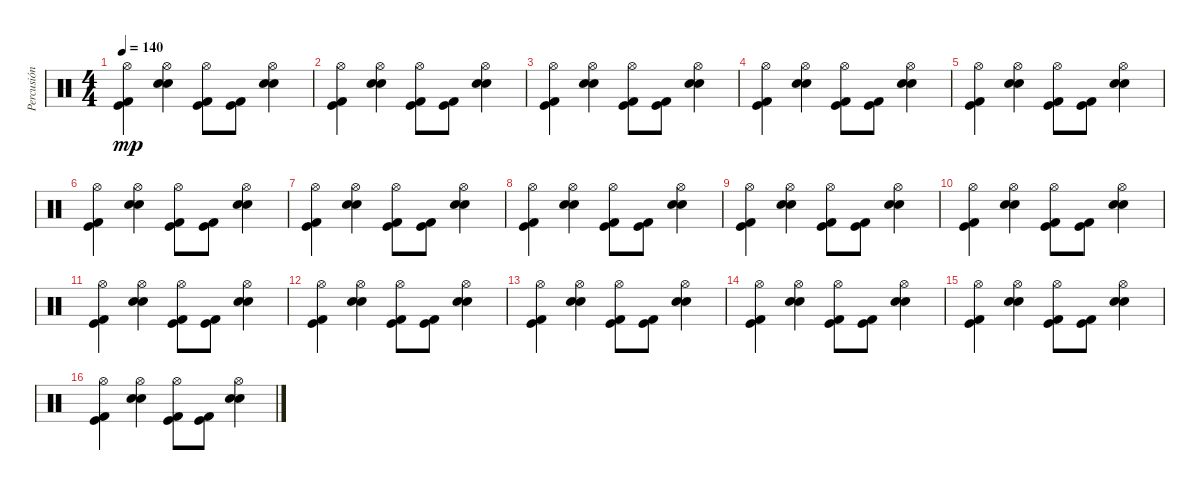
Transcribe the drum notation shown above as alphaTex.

\track ("Percusión" "Percusión") {instrument percussion}
\staff {score}
\articulation defaults
\ts (4 4)
\tempo 140
\clef neutral
\ks c
("Kick (hit)" "Kick (hit) 2" "Hi-Hat (open)").4{dy mp} ("Electric Snare (hit)" "Snare (hit) 2" "Hi-Hat (open)").4 ("Kick (hit)" "Kick (hit) 2" "Hi-Hat (open)").8 ("Kick (hit)" "Kick (hit) 2").8 ("Snare (hit) 2" "Electric Snare (hit)" "Hi-Hat (open)").4 |
("Kick (hit)" "Kick (hit) 2" "Hi-Hat (open)").4 ("Electric Snare (hit)" "Snare (hit) 2" "Hi-Hat (open)").4 ("Kick (hit)" "Kick (hit) 2" "Hi-Hat (open)").8 ("Kick (hit)" "Kick (hit) 2").8 ("Snare (hit) 2" "Electric Snare (hit)" "Hi-Hat (open)").4 |
("Kick (hit)" "Kick (hit) 2" "Hi-Hat (open)").4 ("Electric Snare (hit)" "Snare (hit) 2" "Hi-Hat (open)").4 ("Kick (hit)" "Kick (hit) 2" "Hi-Hat (open)").8 ("Kick (hit)" "Kick (hit) 2").8 ("Snare (hit) 2" "Electric Snare (hit)" "Hi-Hat (open)").4 |
("Kick (hit)" "Kick (hit) 2" "Hi-Hat (open)").4 ("Electric Snare (hit)" "Snare (hit) 2" "Hi-Hat (open)").4 ("Kick (hit)" "Kick (hit) 2" "Hi-Hat (open)").8 ("Kick (hit)" "Kick (hit) 2").8 ("Snare (hit) 2" "Electric Snare (hit)" "Hi-Hat (open)").4 |
("Kick (hit)" "Kick (hit) 2" "Hi-Hat (open)").4 ("Electric Snare (hit)" "Snare (hit) 2" "Hi-Hat (open)").4 ("Kick (hit)" "Kick (hit) 2" "Hi-Hat (open)").8 ("Kick (hit)" "Kick (hit) 2").8 ("Snare (hit) 2" "Electric Snare (hit)" "Hi-Hat (open)").4 |
("Kick (hit)" "Kick (hit) 2" "Hi-Hat (open)").4 ("Electric Snare (hit)" "Snare (hit) 2" "Hi-Hat (open)").4 ("Kick (hit)" "Kick (hit) 2" "Hi-Hat (open)").8 ("Kick (hit)" "Kick (hit) 2").8 ("Snare (hit) 2" "Electric Snare (hit)" "Hi-Hat (open)").4 |
("Kick (hit)" "Kick (hit) 2" "Hi-Hat (open)").4 ("Electric Snare (hit)" "Snare (hit) 2" "Hi-Hat (open)").4 ("Kick (hit)" "Kick (hit) 2" "Hi-Hat (open)").8 ("Kick (hit)" "Kick (hit) 2").8 ("Snare (hit) 2" "Electric Snare (hit)" "Hi-Hat (open)").4 |
("Kick (hit)" "Kick (hit) 2" "Hi-Hat (open)").4 ("Electric Snare (hit)" "Snare (hit) 2" "Hi-Hat (open)").4 ("Kick (hit)" "Kick (hit) 2" "Hi-Hat (open)").8 ("Kick (hit)" "Kick (hit) 2").8 ("Snare (hit) 2" "Electric Snare (hit)" "Hi-Hat (open)").4 |
("Kick (hit)" "Kick (hit) 2" "Hi-Hat (open)").4 ("Electric Snare (hit)" "Snare (hit) 2" "Hi-Hat (open)").4 ("Kick (hit)" "Kick (hit) 2" "Hi-Hat (open)").8 ("Kick (hit)" "Kick (hit) 2").8 ("Snare (hit) 2" "Electric Snare (hit)" "Hi-Hat (open)").4 |
("Kick (hit)" "Kick (hit) 2" "Hi-Hat (open)").4 ("Electric Snare (hit)" "Snare (hit) 2" "Hi-Hat (open)").4 ("Kick (hit)" "Kick (hit) 2" "Hi-Hat (open)").8 ("Kick (hit)" "Kick (hit) 2").8 ("Snare (hit) 2" "Electric Snare (hit)" "Hi-Hat (open)").4 |
("Kick (hit)" "Kick (hit) 2" "Hi-Hat (open)").4 ("Electric Snare (hit)" "Snare (hit) 2" "Hi-Hat (open)").4 ("Kick (hit)" "Kick (hit) 2" "Hi-Hat (open)").8 ("Kick (hit)" "Kick (hit) 2").8 ("Snare (hit) 2" "Electric Snare (hit)" "Hi-Hat (open)").4 |
("Kick (hit)" "Kick (hit) 2" "Hi-Hat (open)").4 ("Electric Snare (hit)" "Snare (hit) 2" "Hi-Hat (open)").4 ("Kick (hit)" "Kick (hit) 2" "Hi-Hat (open)").8 ("Kick (hit)" "Kick (hit) 2").8 ("Snare (hit) 2" "Electric Snare (hit)" "Hi-Hat (open)").4 |
("Kick (hit)" "Kick (hit) 2" "Hi-Hat (open)").4 ("Electric Snare (hit)" "Snare (hit) 2" "Hi-Hat (open)").4 ("Kick (hit)" "Kick (hit) 2" "Hi-Hat (open)").8 ("Kick (hit)" "Kick (hit) 2").8 ("Snare (hit) 2" "Electric Snare (hit)" "Hi-Hat (open)").4 |
("Kick (hit)" "Kick (hit) 2" "Hi-Hat (open)").4 ("Electric Snare (hit)" "Snare (hit) 2" "Hi-Hat (open)").4 ("Kick (hit)" "Kick (hit) 2" "Hi-Hat (open)").8 ("Kick (hit)" "Kick (hit) 2").8 ("Snare (hit) 2" "Electric Snare (hit)" "Hi-Hat (open)").4 |
("Kick (hit)" "Kick (hit) 2" "Hi-Hat (open)").4 ("Electric Snare (hit)" "Snare (hit) 2" "Hi-Hat (open)").4 ("Kick (hit)" "Kick (hit) 2" "Hi-Hat (open)").8 ("Kick (hit)" "Kick (hit) 2").8 ("Snare (hit) 2" "Electric Snare (hit)" "Hi-Hat (open)").4 |
("Kick (hit)" "Kick (hit) 2" "Hi-Hat (open)").4 ("Electric Snare (hit)" "Snare (hit) 2" "Hi-Hat (open)").4 ("Kick (hit)" "Kick (hit) 2" "Hi-Hat (open)").8 ("Kick (hit)" "Kick (hit) 2").8 ("Snare (hit) 2" "Electric Snare (hit)" "Hi-Hat (open)").4
